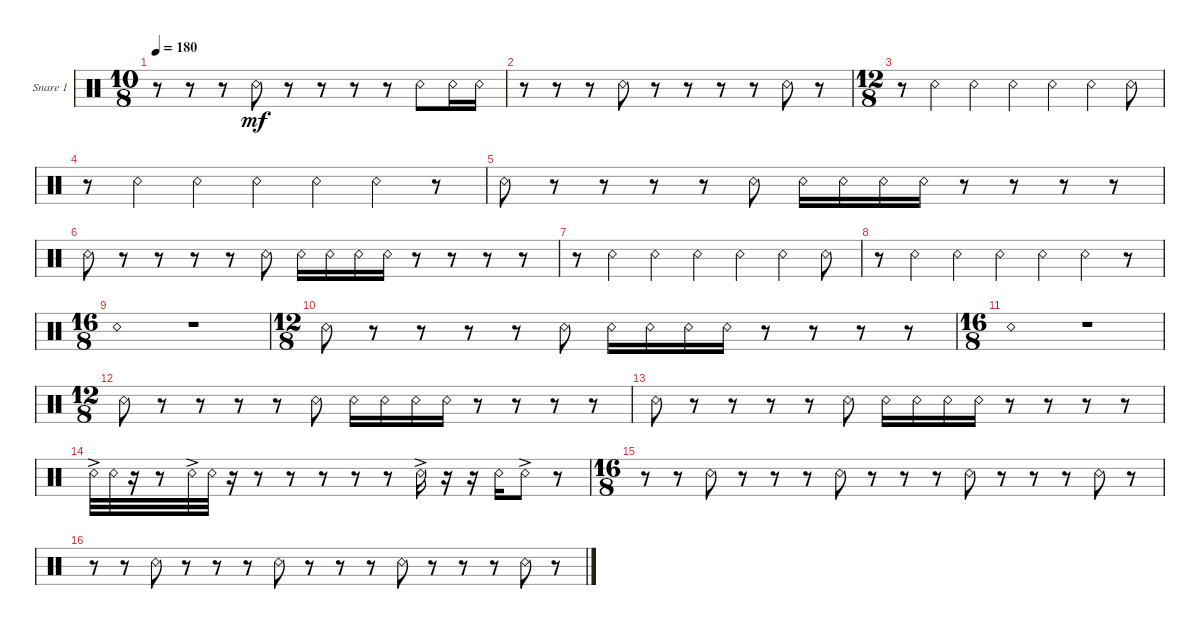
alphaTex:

\defaultSystemsLayout 4
\bracketExtendMode groupsimilarinstruments
\firstSystemTrackNameOrientation horizontal
\otherSystemsTrackNameOrientation horizontal
\track ("Snare 1" "Snare 1") {instrument percussion}
\staff {score}
\articulation defaults
\ts (10 8)
\tempo 180
\clef neutral
\ks c
r.8{dy mf} r.8 r.8 "Snare (rim shot)".8 r.8 r.8 r.8 r.8 "Snare (rim shot)".8 "Snare (rim shot)".16 "Snare (rim shot)".16 |
r.8 r.8 r.8 "Snare (rim shot)".8 r.8 r.8 r.8 r.8 "Snare (rim shot)".8 r.8 |
\ts (12 8)
r.8 "Snare (rim shot)".4 "Snare (rim shot)".4 "Snare (rim shot)".4 "Snare (rim shot)".4 "Snare (rim shot)".4 "Snare (rim shot)".8 |
r.8 "Snare (rim shot)".4 "Snare (rim shot)".4 "Snare (rim shot)".4 "Snare (rim shot)".4 "Snare (rim shot)".4 r.8 |
"Snare (rim shot)".8 r.8 r.8 r.8 r.8 "Snare (rim shot)".8 "Snare (rim shot)".16 "Snare (rim shot)".16 "Snare (rim shot)".16 "Snare (rim shot)".16 r.8 r.8 r.8 r.8 |
"Snare (rim shot)".8 r.8 r.8 r.8 r.8 "Snare (rim shot)".8 "Snare (rim shot)".16 "Snare (rim shot)".16 "Snare (rim shot)".16 "Snare (rim shot)".16 r.8 r.8 r.8 r.8 |
r.8 "Snare (rim shot)".4 "Snare (rim shot)".4 "Snare (rim shot)".4 "Snare (rim shot)".4 "Snare (rim shot)".4 "Snare (rim shot)".8 |
r.8 "Snare (rim shot)".4 "Snare (rim shot)".4 "Snare (rim shot)".4 "Snare (rim shot)".4 "Snare (rim shot)".4 r.8 |
\ts (16 8)
"Snare (rim shot)".1 r.1 |
\ts (12 8)
"Snare (rim shot)".8 r.8 r.8 r.8 r.8 "Snare (rim shot)".8 "Snare (rim shot)".16 "Snare (rim shot)".16 "Snare (rim shot)".16 "Snare (rim shot)".16 r.8 r.8 r.8 r.8 |
\ts (16 8)
"Snare (rim shot)".1 r.1 |
\ts (12 8)
"Snare (rim shot)".8 r.8 r.8 r.8 r.8 "Snare (rim shot)".8 "Snare (rim shot)".16 "Snare (rim shot)".16 "Snare (rim shot)".16 "Snare (rim shot)".16 r.8 r.8 r.8 r.8 |
"Snare (rim shot)".8 r.8 r.8 r.8 r.8 "Snare (rim shot)".8 "Snare (rim shot)".16 "Snare (rim shot)".16 "Snare (rim shot)".16 "Snare (rim shot)".16 r.8 r.8 r.8 r.8 |
"Snare (rim shot)"{ac}.32 "Snare (rim shot)".32 r.16 r.8 "Snare (rim shot)"{ac}.32 "Snare (rim shot)".32 r.16 r.8 r.8 r.8 r.8 r.8 "Snare (rim shot)"{ac}.16 r.16 r.16 "Snare (rim shot)".16 "Snare (rim shot)"{ac}.8 r.8 |
\ts (16 8)
r.8 r.8 "Snare (rim shot)".8 r.8 r.8 r.8 "Snare (rim shot)".8 r.8 r.8 r.8 "Snare (rim shot)".8 r.8 r.8 r.8 "Snare (rim shot)".8 r.8 |
r.8 r.8 "Snare (rim shot)".8 r.8 r.8 r.8 "Snare (rim shot)".8 r.8 r.8 r.8 "Snare (rim shot)".8 r.8 r.8 r.8 "Snare (rim shot)".8 r.8
